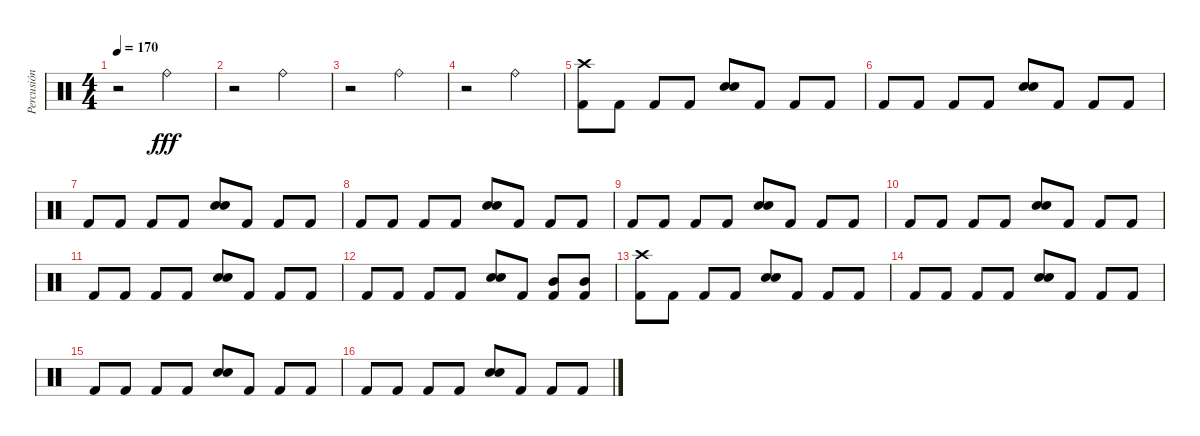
\track ("Percusión" "Percusión") {instrument percussion}
\staff {score}
\articulation defaults
\ts (4 4)
\tempo 170
\clef neutral
\ks c
r.2{dy fff} "Ride (bell)".2 |
r.2 "Ride (bell)".2 |
r.2 "Ride (bell)".2 |
r.2 "Ride (bell)".2 |
("Kick (hit) 2" "Crash high (hit)").8 "Kick (hit) 2".8 "Kick (hit) 2".8 "Kick (hit) 2".8 ("Snare (hit) 2" "Electric Snare (hit)").8 "Kick (hit) 2".8 "Kick (hit) 2".8 "Kick (hit) 2".8 |
"Kick (hit) 2".8 "Kick (hit) 2".8 "Kick (hit) 2".8 "Kick (hit) 2".8 ("Snare (hit) 2" "Electric Snare (hit)").8 "Kick (hit) 2".8 "Kick (hit) 2".8 "Kick (hit) 2".8 |
"Kick (hit) 2".8 "Kick (hit) 2".8 "Kick (hit) 2".8 "Kick (hit) 2".8 ("Snare (hit) 2" "Electric Snare (hit)").8 "Kick (hit) 2".8 "Kick (hit) 2".8 "Kick (hit) 2".8 |
"Kick (hit) 2".8 "Kick (hit) 2".8 "Kick (hit) 2".8 "Kick (hit) 2".8 ("Snare (hit) 2" "Electric Snare (hit)").8 "Kick (hit) 2".8 "Kick (hit) 2".8 "Kick (hit) 2".8 |
"Kick (hit) 2".8 "Kick (hit) 2".8 "Kick (hit) 2".8 "Kick (hit) 2".8 ("Snare (hit) 2" "Electric Snare (hit)").8 "Kick (hit) 2".8 "Kick (hit) 2".8 "Kick (hit) 2".8 |
"Kick (hit) 2".8 "Kick (hit) 2".8 "Kick (hit) 2".8 "Kick (hit) 2".8 ("Snare (hit) 2" "Electric Snare (hit)").8 "Kick (hit) 2".8 "Kick (hit) 2".8 "Kick (hit) 2".8 |
"Kick (hit) 2".8 "Kick (hit) 2".8 "Kick (hit) 2".8 "Kick (hit) 2".8 ("Snare (hit) 2" "Electric Snare (hit)").8 "Kick (hit) 2".8 "Kick (hit) 2".8 "Kick (hit) 2".8 |
"Kick (hit) 2".8 "Kick (hit) 2".8 "Kick (hit) 2".8 "Kick (hit) 2".8 ("Snare (hit) 2" "Electric Snare (hit)").8 "Kick (hit) 2".8 ("Kick (hit) 2" "Mid Tom (hit)").8 ("Kick (hit) 2" "Mid Tom (hit)").8 |
("Kick (hit) 2" "Crash high (hit)").8 "Kick (hit) 2".8 "Kick (hit) 2".8 "Kick (hit) 2".8 ("Snare (hit) 2" "Electric Snare (hit)").8 "Kick (hit) 2".8 "Kick (hit) 2".8 "Kick (hit) 2".8 |
"Kick (hit) 2".8 "Kick (hit) 2".8 "Kick (hit) 2".8 "Kick (hit) 2".8 ("Snare (hit) 2" "Electric Snare (hit)").8 "Kick (hit) 2".8 "Kick (hit) 2".8 "Kick (hit) 2".8 |
"Kick (hit) 2".8 "Kick (hit) 2".8 "Kick (hit) 2".8 "Kick (hit) 2".8 ("Snare (hit) 2" "Electric Snare (hit)").8 "Kick (hit) 2".8 "Kick (hit) 2".8 "Kick (hit) 2".8 |
"Kick (hit) 2".8 "Kick (hit) 2".8 "Kick (hit) 2".8 "Kick (hit) 2".8 ("Snare (hit) 2" "Electric Snare (hit)").8 "Kick (hit) 2".8 "Kick (hit) 2".8 "Kick (hit) 2".8
